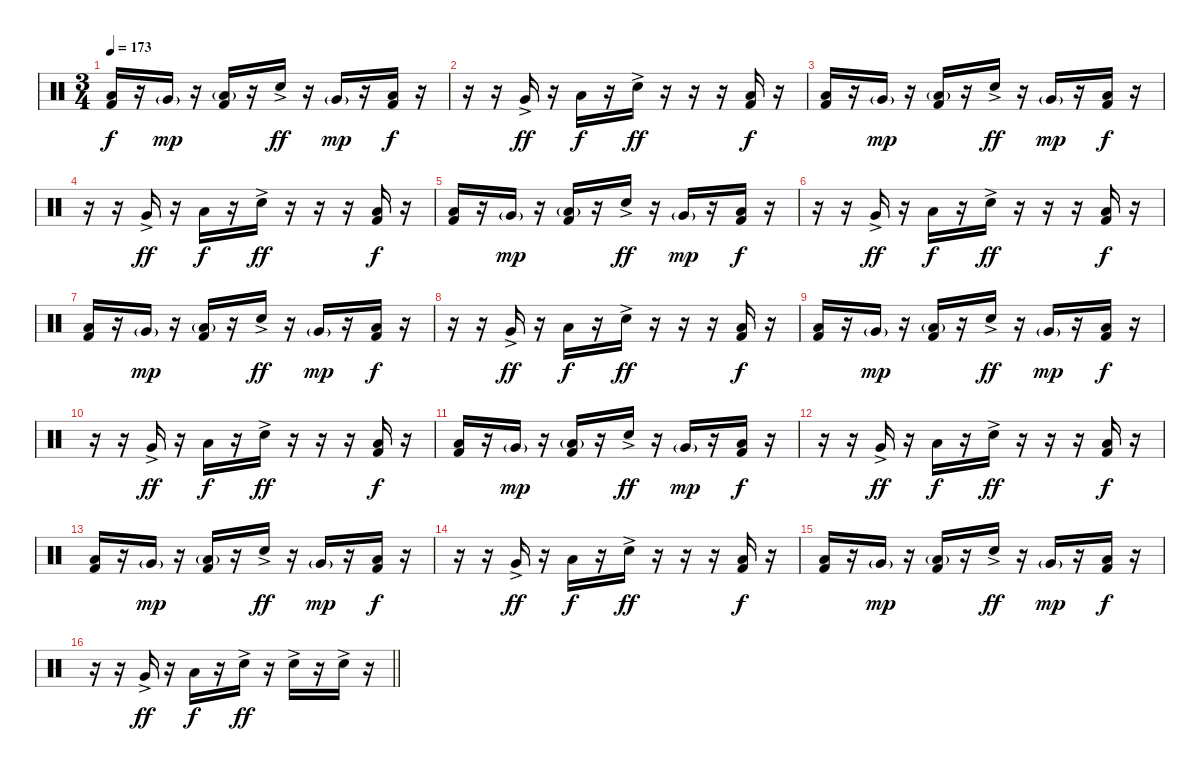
\track (" " " ") {instrument percussion}
\staff {score}
\articulation defaults
\ts (3 4)
\tempo 173
\clef neutral
\ks c
("Low Floor Tom (hit)" "Kick (hit) 2").16{dy f} r.16 "Very Low Tom (hit)"{g}.16{dy mp} r.16 ("Low Floor Tom (hit)"{g} "Kick (hit) 2").16 r.16 "Electric Snare (hit)"{ac}.16{dy ff} r.16 "Very Low Tom (hit)"{g}.16{dy mp} r.16 ("Low Floor Tom (hit)" "Kick (hit) 2").16{dy f} r.16 |
r.16 r.16 "Very Low Tom (hit)"{ac}.16{dy ff} r.16 "Low Floor Tom (hit)".16{dy f} r.16 "Electric Snare (hit)"{ac}.16{dy ff} r.16 r.16 r.16 ("Low Floor Tom (hit)" "Kick (hit) 2").16{dy f} r.16 |
("Low Floor Tom (hit)" "Kick (hit) 2").16 r.16 "Very Low Tom (hit)"{g}.16{dy mp} r.16 ("Low Floor Tom (hit)"{g} "Kick (hit) 2").16 r.16 "Electric Snare (hit)"{ac}.16{dy ff} r.16 "Very Low Tom (hit)"{g}.16{dy mp} r.16 ("Low Floor Tom (hit)" "Kick (hit) 2").16{dy f} r.16 |
r.16 r.16 "Very Low Tom (hit)"{ac}.16{dy ff} r.16 "Low Floor Tom (hit)".16{dy f} r.16 "Electric Snare (hit)"{ac}.16{dy ff} r.16 r.16 r.16 ("Low Floor Tom (hit)" "Kick (hit) 2").16{dy f} r.16 |
("Low Floor Tom (hit)" "Kick (hit) 2").16 r.16 "Very Low Tom (hit)"{g}.16{dy mp} r.16 ("Low Floor Tom (hit)"{g} "Kick (hit) 2").16 r.16 "Electric Snare (hit)"{ac}.16{dy ff} r.16 "Very Low Tom (hit)"{g}.16{dy mp} r.16 ("Low Floor Tom (hit)" "Kick (hit) 2").16{dy f} r.16 |
r.16 r.16 "Very Low Tom (hit)"{ac}.16{dy ff} r.16 "Low Floor Tom (hit)".16{dy f} r.16 "Electric Snare (hit)"{ac}.16{dy ff} r.16 r.16 r.16 ("Low Floor Tom (hit)" "Kick (hit) 2").16{dy f} r.16 |
("Low Floor Tom (hit)" "Kick (hit) 2").16 r.16 "Very Low Tom (hit)"{g}.16{dy mp} r.16 ("Low Floor Tom (hit)"{g} "Kick (hit) 2").16 r.16 "Electric Snare (hit)"{ac}.16{dy ff} r.16 "Very Low Tom (hit)"{g}.16{dy mp} r.16 ("Low Floor Tom (hit)" "Kick (hit) 2").16{dy f} r.16 |
r.16 r.16 "Very Low Tom (hit)"{ac}.16{dy ff} r.16 "Low Floor Tom (hit)".16{dy f} r.16 "Electric Snare (hit)"{ac}.16{dy ff} r.16 r.16 r.16 ("Low Floor Tom (hit)" "Kick (hit) 2").16{dy f} r.16 |
("Low Floor Tom (hit)" "Kick (hit) 2").16 r.16 "Very Low Tom (hit)"{g}.16{dy mp} r.16 ("Low Floor Tom (hit)"{g} "Kick (hit) 2").16 r.16 "Electric Snare (hit)"{ac}.16{dy ff} r.16 "Very Low Tom (hit)"{g}.16{dy mp} r.16 ("Low Floor Tom (hit)" "Kick (hit) 2").16{dy f} r.16 |
r.16 r.16 "Very Low Tom (hit)"{ac}.16{dy ff} r.16 "Low Floor Tom (hit)".16{dy f} r.16 "Electric Snare (hit)"{ac}.16{dy ff} r.16 r.16 r.16 ("Low Floor Tom (hit)" "Kick (hit) 2").16{dy f} r.16 |
("Low Floor Tom (hit)" "Kick (hit) 2").16 r.16 "Very Low Tom (hit)"{g}.16{dy mp} r.16 ("Low Floor Tom (hit)"{g} "Kick (hit) 2").16 r.16 "Electric Snare (hit)"{ac}.16{dy ff} r.16 "Very Low Tom (hit)"{g}.16{dy mp} r.16 ("Low Floor Tom (hit)" "Kick (hit) 2").16{dy f} r.16 |
r.16 r.16 "Very Low Tom (hit)"{ac}.16{dy ff} r.16 "Low Floor Tom (hit)".16{dy f} r.16 "Electric Snare (hit)"{ac}.16{dy ff} r.16 r.16 r.16 ("Low Floor Tom (hit)" "Kick (hit) 2").16{dy f} r.16 |
("Low Floor Tom (hit)" "Kick (hit) 2").16 r.16 "Very Low Tom (hit)"{g}.16{dy mp} r.16 ("Low Floor Tom (hit)"{g} "Kick (hit) 2").16 r.16 "Electric Snare (hit)"{ac}.16{dy ff} r.16 "Very Low Tom (hit)"{g}.16{dy mp} r.16 ("Low Floor Tom (hit)" "Kick (hit) 2").16{dy f} r.16 |
r.16 r.16 "Very Low Tom (hit)"{ac}.16{dy ff} r.16 "Low Floor Tom (hit)".16{dy f} r.16 "Electric Snare (hit)"{ac}.16{dy ff} r.16 r.16 r.16 ("Low Floor Tom (hit)" "Kick (hit) 2").16{dy f} r.16 |
("Low Floor Tom (hit)" "Kick (hit) 2").16 r.16 "Very Low Tom (hit)"{g}.16{dy mp} r.16 ("Low Floor Tom (hit)"{g} "Kick (hit) 2").16 r.16 "Electric Snare (hit)"{ac}.16{dy ff} r.16 "Very Low Tom (hit)"{g}.16{dy mp} r.16 ("Low Floor Tom (hit)" "Kick (hit) 2").16{dy f} r.16 |
\barLineRight lightlight
r.16 r.16 "Very Low Tom (hit)"{ac}.16{dy ff} r.16 "Low Floor Tom (hit)".16{dy f} r.16 "Electric Snare (hit)"{ac}.16{dy ff} r.16 "Electric Snare (hit)"{ac}.16 r.16 "Electric Snare (hit)"{ac}.16 r.16
